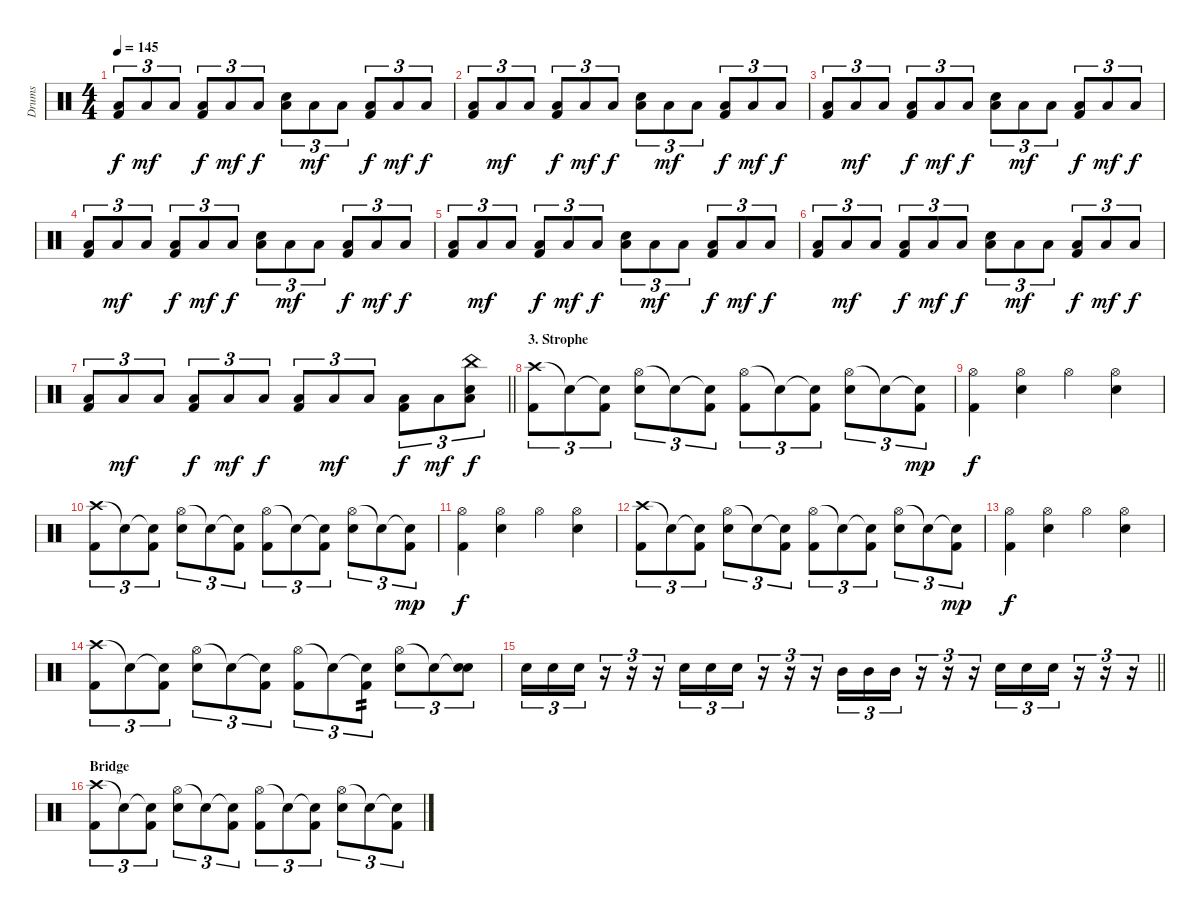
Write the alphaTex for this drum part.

\track ("Drums" "Drums") {instrument percussion}
\staff {score}
\articulation defaults
\ts (4 4)
\tempo 145
\clef neutral
\ks c
("Kick (hit) 2" "Low Floor Tom (hit)").8{tu (3 2) dy f} "Low Floor Tom (hit)".8{tu (3 2) dy mf} "Low Floor Tom (hit)".8{tu (3 2)} ("Kick (hit) 2" "Low Floor Tom (hit)").8{tu (3 2) dy f} "Low Floor Tom (hit)".8{tu (3 2) dy mf} "Low Floor Tom (hit)".8{tu (3 2) dy f} ("Snare (hit) 2" "Low Floor Tom (hit)").8{tu (3 2)} "Low Floor Tom (hit)".8{tu (3 2) dy mf} "Low Floor Tom (hit)".8{tu (3 2)} ("Kick (hit) 2" "Low Floor Tom (hit)").8{tu (3 2) dy f} "Low Floor Tom (hit)".8{tu (3 2) dy mf} "Low Floor Tom (hit)".8{tu (3 2) dy f} |
("Kick (hit) 2" "Low Floor Tom (hit)").8{tu (3 2)} "Low Floor Tom (hit)".8{tu (3 2) dy mf} "Low Floor Tom (hit)".8{tu (3 2)} ("Kick (hit) 2" "Low Floor Tom (hit)").8{tu (3 2) dy f} "Low Floor Tom (hit)".8{tu (3 2) dy mf} "Low Floor Tom (hit)".8{tu (3 2) dy f} ("Snare (hit) 2" "Low Floor Tom (hit)").8{tu (3 2)} "Low Floor Tom (hit)".8{tu (3 2) dy mf} "Low Floor Tom (hit)".8{tu (3 2)} ("Kick (hit) 2" "Low Floor Tom (hit)").8{tu (3 2) dy f} "Low Floor Tom (hit)".8{tu (3 2) dy mf} "Low Floor Tom (hit)".8{tu (3 2) dy f} |
("Kick (hit) 2" "Low Floor Tom (hit)").8{tu (3 2)} "Low Floor Tom (hit)".8{tu (3 2) dy mf} "Low Floor Tom (hit)".8{tu (3 2)} ("Kick (hit) 2" "Low Floor Tom (hit)").8{tu (3 2) dy f} "Low Floor Tom (hit)".8{tu (3 2) dy mf} "Low Floor Tom (hit)".8{tu (3 2) dy f} ("Snare (hit) 2" "Low Floor Tom (hit)").8{tu (3 2)} "Low Floor Tom (hit)".8{tu (3 2) dy mf} "Low Floor Tom (hit)".8{tu (3 2)} ("Kick (hit) 2" "Low Floor Tom (hit)").8{tu (3 2) dy f} "Low Floor Tom (hit)".8{tu (3 2) dy mf} "Low Floor Tom (hit)".8{tu (3 2) dy f} |
("Kick (hit) 2" "Low Floor Tom (hit)").8{tu (3 2)} "Low Floor Tom (hit)".8{tu (3 2) dy mf} "Low Floor Tom (hit)".8{tu (3 2)} ("Kick (hit) 2" "Low Floor Tom (hit)").8{tu (3 2) dy f} "Low Floor Tom (hit)".8{tu (3 2) dy mf} "Low Floor Tom (hit)".8{tu (3 2) dy f} ("Snare (hit) 2" "Low Floor Tom (hit)").8{tu (3 2)} "Low Floor Tom (hit)".8{tu (3 2) dy mf} "Low Floor Tom (hit)".8{tu (3 2)} ("Kick (hit) 2" "Low Floor Tom (hit)").8{tu (3 2) dy f} "Low Floor Tom (hit)".8{tu (3 2) dy mf} "Low Floor Tom (hit)".8{tu (3 2) dy f} |
("Kick (hit) 2" "Low Floor Tom (hit)").8{tu (3 2)} "Low Floor Tom (hit)".8{tu (3 2) dy mf} "Low Floor Tom (hit)".8{tu (3 2)} ("Kick (hit) 2" "Low Floor Tom (hit)").8{tu (3 2) dy f} "Low Floor Tom (hit)".8{tu (3 2) dy mf} "Low Floor Tom (hit)".8{tu (3 2) dy f} ("Snare (hit) 2" "Low Floor Tom (hit)").8{tu (3 2)} "Low Floor Tom (hit)".8{tu (3 2) dy mf} "Low Floor Tom (hit)".8{tu (3 2)} ("Kick (hit) 2" "Low Floor Tom (hit)").8{tu (3 2) dy f} "Low Floor Tom (hit)".8{tu (3 2) dy mf} "Low Floor Tom (hit)".8{tu (3 2) dy f} |
("Kick (hit) 2" "Low Floor Tom (hit)").8{tu (3 2)} "Low Floor Tom (hit)".8{tu (3 2) dy mf} "Low Floor Tom (hit)".8{tu (3 2)} ("Kick (hit) 2" "Low Floor Tom (hit)").8{tu (3 2) dy f} "Low Floor Tom (hit)".8{tu (3 2) dy mf} "Low Floor Tom (hit)".8{tu (3 2) dy f} ("Snare (hit) 2" "Low Floor Tom (hit)").8{tu (3 2)} "Low Floor Tom (hit)".8{tu (3 2) dy mf} "Low Floor Tom (hit)".8{tu (3 2)} ("Kick (hit) 2" "Low Floor Tom (hit)").8{tu (3 2) dy f} "Low Floor Tom (hit)".8{tu (3 2) dy mf} "Low Floor Tom (hit)".8{tu (3 2) dy f} |
\barLineRight lightlight
("Kick (hit) 2" "Low Floor Tom (hit)").8{tu (3 2)} "Low Floor Tom (hit)".8{tu (3 2) dy mf} "Low Floor Tom (hit)".8{tu (3 2)} ("Kick (hit) 2" "Low Floor Tom (hit)").8{tu (3 2) dy f} "Low Floor Tom (hit)".8{tu (3 2) dy mf} "Low Floor Tom (hit)".8{tu (3 2) dy f} ("Kick (hit) 2" "Low Floor Tom (hit)").8{tu (3 2)} "Low Floor Tom (hit)".8{tu (3 2) dy mf} "Low Floor Tom (hit)".8{tu (3 2)} ("Kick (hit) 2" "Low Floor Tom (hit)").8{tu (3 2) dy f} "Low Floor Tom (hit)".8{tu (3 2) dy mf} ("Electric Snare (hit)" "Low Floor Tom (hit)" "China (hit)").8{tu (3 2) dy f} |
\section ("" "3. Strophe")
("Crash high (hit)" "Kick (hit) 2").8{tu (3 2)} "Snare (hit)"{t}.8{tu (3 2)} ("Snare (hit)"{t} "Kick (hit) 2").8{tu (3 2)} ("Hi-Hat (open)" "Snare (hit) 2").8{tu (3 2)} "Snare (hit)"{t}.8{tu (3 2)} ("Snare (hit)"{t} "Kick (hit) 2").8{tu (3 2)} ("Hi-Hat (open)" "Kick (hit) 2").8{tu (3 2)} "Snare (hit)"{t}.8{tu (3 2)} ("Snare (hit)"{t} "Kick (hit) 2").8{tu (3 2)} ("Hi-Hat (open)" "Snare (hit) 2").8{tu (3 2)} "Snare (hit)"{t}.8{tu (3 2)} ("Snare (hit)"{t} "Kick (hit) 2").8{tu (3 2) dy mp} |
("Hi-Hat (open)" "Kick (hit) 2").4{dy f} ("Hi-Hat (open)" "Snare (hit) 2").4 "Hi-Hat (open)".4 ("Hi-Hat (open)" "Snare (hit) 2").4 |
("Crash high (hit)" "Kick (hit) 2").8{tu (3 2)} "Snare (hit)"{t}.8{tu (3 2)} ("Snare (hit)"{t} "Kick (hit) 2").8{tu (3 2)} ("Hi-Hat (open)" "Snare (hit) 2").8{tu (3 2)} "Snare (hit)"{t}.8{tu (3 2)} ("Snare (hit)"{t} "Kick (hit) 2").8{tu (3 2)} ("Hi-Hat (open)" "Kick (hit) 2").8{tu (3 2)} "Snare (hit)"{t}.8{tu (3 2)} ("Snare (hit)"{t} "Kick (hit) 2").8{tu (3 2)} ("Hi-Hat (open)" "Snare (hit) 2").8{tu (3 2)} "Snare (hit)"{t}.8{tu (3 2)} ("Snare (hit)"{t} "Kick (hit) 2").8{tu (3 2) dy mp} |
("Hi-Hat (open)" "Kick (hit) 2").4{dy f} ("Hi-Hat (open)" "Snare (hit) 2").4 "Hi-Hat (open)".4 ("Hi-Hat (open)" "Snare (hit) 2").4 |
("Crash high (hit)" "Kick (hit) 2").8{tu (3 2)} "Snare (hit)"{t}.8{tu (3 2)} ("Snare (hit)"{t} "Kick (hit) 2").8{tu (3 2)} ("Hi-Hat (open)" "Snare (hit) 2").8{tu (3 2)} "Snare (hit)"{t}.8{tu (3 2)} ("Snare (hit)"{t} "Kick (hit) 2").8{tu (3 2)} ("Hi-Hat (open)" "Kick (hit) 2").8{tu (3 2)} "Snare (hit)"{t}.8{tu (3 2)} ("Snare (hit)"{t} "Kick (hit) 2").8{tu (3 2)} ("Hi-Hat (open)" "Snare (hit) 2").8{tu (3 2)} "Snare (hit)"{t}.8{tu (3 2)} ("Snare (hit)"{t} "Kick (hit) 2").8{tu (3 2) dy mp} |
("Hi-Hat (open)" "Kick (hit) 2").4{dy f} ("Hi-Hat (open)" "Snare (hit) 2").4 "Hi-Hat (open)".4 ("Hi-Hat (open)" "Snare (hit) 2").4 |
("Crash high (hit)" "Kick (hit) 2").8{tu (3 2)} "Snare (hit)"{t}.8{tu (3 2)} ("Snare (hit)"{t} "Kick (hit) 2").8{tu (3 2)} ("Hi-Hat (open)" "Snare (hit) 2").8{tu (3 2)} "Snare (hit)"{t}.8{tu (3 2)} ("Snare (hit)"{t} "Kick (hit) 2").8{tu (3 2)} ("Hi-Hat (open)" "Kick (hit) 2").8{tu (3 2)} "Snare (hit)"{t}.8{tu (3 2)} ("Snare (hit)"{t} "Kick (hit) 2").8{tu (3 2) tp 2} ("Hi-Hat (open)" "Snare (hit) 2").8{tu (3 2)} "Snare (hit)"{t}.8{tu (3 2)} ("Snare (hit)"{t} "Snare (hit) 2").8{tu (3 2)} |
\barLineRight lightlight "Electric Snare (hit)".16{tu (3 2)} "Electric Snare (hit)".16{tu (3 2)} "Electric Snare (hit)".16{tu (3 2)}
r.16{tu (3 2)} r.16{tu (3 2)} r.16{tu (3 2)} "Electric Snare (hit)".16{tu (3 2)} "Electric Snare (hit)".16{tu (3 2)} "Electric Snare (hit)".16{tu (3 2)} r.16{tu (3 2)} r.16{tu (3 2)} r.16{tu (3 2)} "Mid Tom (hit)".16{tu (3 2)} "Mid Tom (hit)".16{tu (3 2)} "Mid Tom (hit)".16{tu (3 2)} r.16{tu (3 2)} r.16{tu (3 2)} r.16{tu (3 2)} "Electric Snare (hit)".16{tu (3 2)} "Electric Snare (hit)".16{tu (3 2)} "Electric Snare (hit)".16{tu (3 2)} r.16{tu (3 2)} r.16{tu (3 2)} r.16{tu (3 2)} |
\section ("" "Bridge")
("Crash high (hit)" "Kick (hit) 2").8{tu (3 2)} "Snare (hit)"{t}.8{tu (3 2)} ("Snare (hit)"{t} "Kick (hit) 2").8{tu (3 2)} ("Hi-Hat (open)" "Snare (hit) 2").8{tu (3 2)} "Snare (hit)"{t}.8{tu (3 2)} ("Snare (hit)"{t} "Kick (hit) 2").8{tu (3 2)} ("Hi-Hat (open)" "Kick (hit) 2").8{tu (3 2)} "Snare (hit)"{t}.8{tu (3 2)} ("Snare (hit)"{t} "Kick (hit) 2").8{tu (3 2)} ("Hi-Hat (open)" "Snare (hit) 2").8{tu (3 2)} "Snare (hit)"{t}.8{tu (3 2)} ("Snare (hit)"{t} "Kick (hit) 2").8{tu (3 2)}
